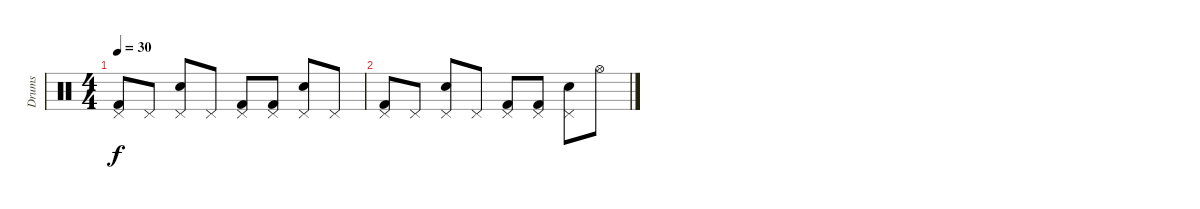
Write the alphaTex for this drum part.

\track ("Drums" "Drums") {instrument percussion}
\staff {score}
\articulation defaults
\ts (4 4)
\tempo 30
\clef neutral
\ks c
("Pedal Hi-Hat (hit)" "Kick (hit) 2").8{dy f} "Pedal Hi-Hat (hit)".8 ("Pedal Hi-Hat (hit)" "Snare (hit) 2").8 "Pedal Hi-Hat (hit)".8 ("Pedal Hi-Hat (hit)" "Kick (hit) 2").8 ("Pedal Hi-Hat (hit)" "Kick (hit) 2").8 ("Pedal Hi-Hat (hit)" "Snare (hit) 2").8 "Pedal Hi-Hat (hit)".8 |
("Pedal Hi-Hat (hit)" "Kick (hit) 2").8 "Pedal Hi-Hat (hit)".8 ("Pedal Hi-Hat (hit)" "Snare (hit) 2").8 "Pedal Hi-Hat (hit)".8 ("Pedal Hi-Hat (hit)" "Kick (hit) 2").8 ("Pedal Hi-Hat (hit)" "Kick (hit) 2").8 ("Pedal Hi-Hat (hit)" "Snare (hit) 2").8 "Hi-Hat (open)".8
